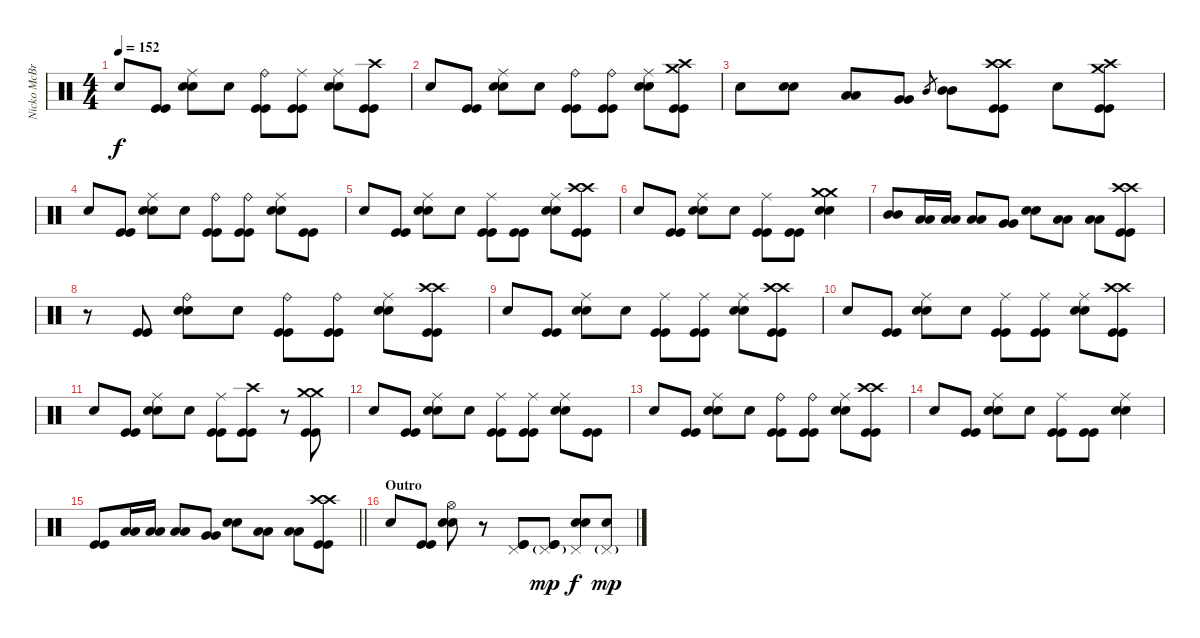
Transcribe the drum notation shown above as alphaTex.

\track ("Nicko McBrain" "Nicko McBr") {instrument percussion}
\staff {score}
\articulation defaults
\ts (4 4)
\tempo 152
\clef neutral
\ks c "Snare (hit)".8{dy f}
("Kick (hit)" "Kick (hit)").8 ("Ride (middle)" "Electric Snare (hit)" "Electric Snare (hit)").8 "Snare (hit)".8 ("Ride (bell)" "Kick (hit)" "Kick (hit)").8 ("Ride (middle)" "Kick (hit)" "Kick (hit)").8 ("Ride (middle)" "Electric Snare (hit)" "Electric Snare (hit)").8 ("Crash high (hit)" "Kick (hit)" "Kick (hit)").8 |
"Snare (hit)".8 ("Kick (hit)" "Kick (hit)").8 ("Ride (middle)" "Electric Snare (hit)" "Electric Snare (hit)").8 "Snare (hit)".8 ("Ride (bell)" "Kick (hit)" "Kick (hit)").8 ("Ride (bell)" "Kick (hit)" "Kick (hit)").8 ("Ride (middle)" "Electric Snare (hit)" "Electric Snare (hit)").8 ("Crash high (hit)" "Crash medium (hit)" "Kick (hit)" "Kick (hit)").8 |
"Snare (hit)".8 ("Electric Snare (hit)" "Electric Snare (hit)").8 ("Low Tom (hit)" "Low Tom (hit)").8 ("Very Low Tom (hit)" "Very Low Tom (hit)").8 "Mid Tom (hit)".8{gr} ("Mid Tom (hit)" "Mid Tom (hit)").8 ("Crash high (hit)" "Crash high (hit)" "Kick (hit)" "Kick (hit)").8 "Snare (hit)".8 ("Crash high (hit)" "Crash medium (hit)" "Kick (hit)" "Kick (hit)").8 |
"Snare (hit)".8 ("Kick (hit)" "Kick (hit)").8 ("Ride (middle)" "Electric Snare (hit)" "Electric Snare (hit)").8 "Snare (hit)".8 ("Ride (bell)" "Kick (hit)" "Kick (hit)").8 ("Ride (bell)" "Kick (hit)" "Kick (hit)").8 ("Ride (middle)" "Electric Snare (hit)" "Electric Snare (hit)").8 ("Kick (hit)" "Kick (hit)").8 |
"Snare (hit)".8 ("Kick (hit)" "Kick (hit)").8 ("Ride (middle)" "Electric Snare (hit)" "Electric Snare (hit)").8 "Snare (hit)".8 ("Ride (middle)" "Kick (hit)" "Kick (hit)").8 ("Kick (hit)" "Kick (hit)").8 ("Ride (middle)" "Electric Snare (hit)" "Electric Snare (hit)").8 ("Crash high (hit)" "Crash high (hit)" "Kick (hit)" "Kick (hit)").8 |
"Snare (hit)".8 ("Kick (hit)" "Kick (hit)").8 ("Ride (middle)" "Electric Snare (hit)" "Electric Snare (hit)").8 "Snare (hit)".8 ("Ride (middle)" "Kick (hit)" "Kick (hit)").8 ("Kick (hit)" "Kick (hit)").8 ("Crash medium (hit)" "Crash medium (hit)" "Electric Snare (hit)" "Electric Snare (hit)").4 |
("Mid Tom (hit)" "Mid Tom (hit)").8 ("Low Tom (hit)" "Low Tom (hit)").16 ("Low Tom (hit)" "Low Tom (hit)").16 ("Low Tom (hit)" "Low Tom (hit)").8 ("Very Low Tom (hit)" "Very Low Tom (hit)").8 ("Electric Snare (hit)" "Electric Snare (hit)").8 ("Low Floor Tom (hit)" "Low Floor Tom (hit)").8 ("Low Floor Tom (hit)" "Low Floor Tom (hit)").8 ("Crash high (hit)" "Crash high (hit)" "Kick (hit)" "Kick (hit)").8 |
r.8 ("Kick (hit)" "Kick (hit)").8 ("Ride (bell)" "Electric Snare (hit)" "Electric Snare (hit)").8 "Snare (hit)".8 ("Ride (bell)" "Kick (hit)" "Kick (hit)").8 ("Ride (bell)" "Kick (hit)" "Kick (hit)").8 ("Ride (middle)" "Electric Snare (hit)" "Electric Snare (hit)").8 ("Crash high (hit)" "Crash high (hit)" "Kick (hit)" "Kick (hit)").8 |
"Snare (hit)".8 ("Kick (hit)" "Kick (hit)").8 ("Ride (middle)" "Electric Snare (hit)" "Electric Snare (hit)").8 "Snare (hit)".8 ("Ride (middle)" "Kick (hit)" "Kick (hit)").8 ("Ride (middle)" "Kick (hit)" "Kick (hit)").8 ("Ride (middle)" "Electric Snare (hit)" "Electric Snare (hit)").8 ("Crash high (hit)" "Crash high (hit)" "Kick (hit)" "Kick (hit)").8 |
"Snare (hit)".8 ("Kick (hit)" "Kick (hit)").8 ("Ride (middle)" "Electric Snare (hit)" "Electric Snare (hit)").8 "Snare (hit)".8 ("Ride (middle)" "Kick (hit)" "Kick (hit)").8 ("Ride (middle)" "Kick (hit)" "Kick (hit)").8 ("Ride (middle)" "Electric Snare (hit)" "Electric Snare (hit)").8 ("Crash high (hit)" "Crash high (hit)" "Kick (hit)" "Kick (hit)").8 |
"Snare (hit)".8 ("Kick (hit)" "Kick (hit)").8 ("Ride (middle)" "Electric Snare (hit)" "Electric Snare (hit)").8 "Snare (hit)".8 ("Ride (middle)" "Kick (hit)" "Kick (hit)").8 ("Crash high (hit)" "Kick (hit)" "Kick (hit)").8 r.8 ("Crash medium (hit)" "Crash medium (hit)" "Kick (hit)" "Kick (hit)").8 |
"Snare (hit)".8 ("Kick (hit)" "Kick (hit)").8 ("Ride (middle)" "Electric Snare (hit)" "Electric Snare (hit)").8 "Snare (hit)".8 ("Ride (middle)" "Kick (hit)" "Kick (hit)").8 ("Ride (middle)" "Kick (hit)" "Kick (hit)").8 ("Ride (middle)" "Electric Snare (hit)" "Electric Snare (hit)").8 ("Kick (hit)" "Kick (hit)").8 |
"Snare (hit)".8 ("Kick (hit)" "Kick (hit)").8 ("Ride (middle)" "Electric Snare (hit)" "Electric Snare (hit)").8 "Snare (hit)".8 ("Ride (bell)" "Kick (hit)" "Kick (hit)").8 ("Ride (bell)" "Kick (hit)" "Kick (hit)").8 ("Ride (middle)" "Electric Snare (hit)" "Electric Snare (hit)").8 ("Crash high (hit)" "Crash high (hit)" "Kick (hit)" "Kick (hit)").8 |
"Snare (hit)".8 ("Kick (hit)" "Kick (hit)").8 ("Ride (middle)" "Electric Snare (hit)" "Electric Snare (hit)").8 "Snare (hit)".8 ("Ride (middle)" "Kick (hit)" "Kick (hit)").8 ("Kick (hit)" "Kick (hit)").8 ("Ride (middle)" "Electric Snare (hit)" "Electric Snare (hit)").4 |
\barLineRight lightlight
("Kick (hit)" "Kick (hit)").8 ("Low Tom (hit)" "Low Tom (hit)").16 ("Low Tom (hit)" "Low Tom (hit)").16 ("Low Tom (hit)" "Low Tom (hit)").8 ("Very Low Tom (hit)" "Very Low Tom (hit)").8 ("Electric Snare (hit)" "Electric Snare (hit)").8 ("Low Floor Tom (hit)" "Low Floor Tom (hit)").8 ("Low Floor Tom (hit)" "Low Floor Tom (hit)").8 ("Crash high (hit)" "Crash high (hit)" "Kick (hit)" "Kick (hit)").8 |
\section ("" "Outro")
"Snare (hit)".8 ("Kick (hit)" "Kick (hit)").8 ("Hi-Hat (open)" "Electric Snare (hit)" "Electric Snare (hit)").8 r.8 ("Pedal Hi-Hat (hit)" "Kick (hit)" "Kick (hit)").8 ("Pedal Hi-Hat (hit)"{g} "Kick (hit)" "Kick (hit)").8{dy mp} ("Pedal Hi-Hat (hit)" "Electric Snare (hit)" "Electric Snare (hit)").8{dy f} ("Pedal Hi-Hat (hit)"{g} "Snare (hit)").8{dy mp}
